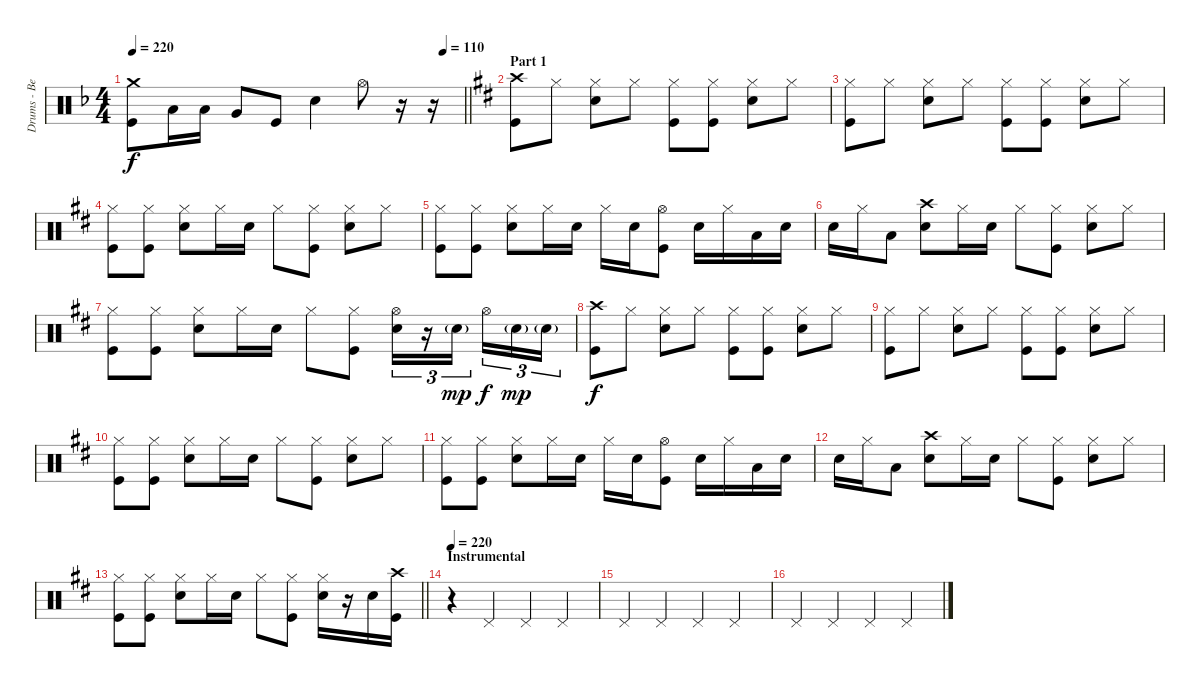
\track ("Drums - Ben Johnston" "Drums - Be") {instrument percussion}
\staff {score}
\articulation defaults
\ts (4 4)
\tempo 220
\tempo (110 0.9375)
\clef neutral
\barLineRight lightlight
\ks dminor
("Crash medium (hit)" "Kick (hit)").8{dy f} "Low Tom (hit)".16 "Low Tom (hit)".16 "Very Low Tom (hit)".8 "Kick (hit)".8 "Snare (hit) 2".4 "Hi-Hat (open)".8 r.16 r.16 |
\section ("" "Part 1")
\ks d
("Crash high (hit)" "Kick (hit)").8 "Hi-Hat (closed)".8 ("Hi-Hat (closed)" "Snare (hit) 2").8 "Hi-Hat (closed)".8 ("Hi-Hat (closed)" "Kick (hit)").8 ("Hi-Hat (closed)" "Kick (hit)").8 ("Hi-Hat (closed)" "Snare (hit) 2").8 "Hi-Hat (closed)".8 |
("Hi-Hat (closed)" "Kick (hit)").8 "Hi-Hat (closed)".8 ("Hi-Hat (closed)" "Snare (hit) 2").8 "Hi-Hat (closed)".8 ("Hi-Hat (closed)" "Kick (hit)").8 ("Hi-Hat (closed)" "Kick (hit)").8 ("Hi-Hat (closed)" "Snare (hit) 2").8 "Hi-Hat (closed)".8 |
("Hi-Hat (closed)" "Kick (hit)").8 ("Hi-Hat (closed)" "Kick (hit)").8 ("Hi-Hat (closed)" "Snare (hit) 2").8 "Hi-Hat (closed)".16 "Snare (hit) 2".16 "Hi-Hat (closed)".8 ("Hi-Hat (closed)" "Kick (hit)").8 ("Hi-Hat (closed)" "Snare (hit) 2").8 "Hi-Hat (closed)".8 |
("Hi-Hat (closed)" "Kick (hit)").8 ("Hi-Hat (closed)" "Kick (hit)").8 ("Hi-Hat (closed)" "Snare (hit) 2").8 "Hi-Hat (closed)".16 "Snare (hit) 2".16 "Hi-Hat (closed)".16 "Snare (hit) 2".16 ("Hi-Hat (open)" "Kick (hit)").8 "Snare (hit) 2".16 "Hi-Hat (closed)".16 "Low Tom (hit)".16 "Snare (hit) 2".16 |
"Snare (hit) 2".16 "Hi-Hat (closed)".16 "Low Tom (hit)".8 ("Crash high (hit)" "Snare (hit) 2").8 "Hi-Hat (closed)".16 "Snare (hit) 2".16 "Hi-Hat (closed)".8 ("Hi-Hat (closed)" "Kick (hit)").8 ("Hi-Hat (closed)" "Snare (hit) 2").8 "Hi-Hat (closed)".8 |
("Hi-Hat (closed)" "Kick (hit)").8 ("Hi-Hat (closed)" "Kick (hit)").8 ("Hi-Hat (closed)" "Snare (hit) 2").8 "Hi-Hat (closed)".16 "Snare (hit) 2".16 "Hi-Hat (closed)".8 ("Hi-Hat (closed)" "Kick (hit)").8 ("Hi-Hat (open)" "Snare (hit) 2").16{tu (3 2)} r.16{tu (3 2)} "Snare (hit) 2"{g}.16{tu (3 2) dy mp beam splitsecondary} "Hi-Hat (open)".16{tu (3 2) dy f} "Snare (hit) 2"{g}.16{tu (3 2) dy mp} "Snare (hit) 2"{g}.16{tu (3 2)} |
("Crash high (hit)" "Kick (hit)").8{dy f} "Hi-Hat (closed)".8 ("Hi-Hat (closed)" "Snare (hit) 2").8 "Hi-Hat (closed)".8 ("Hi-Hat (closed)" "Kick (hit)").8 ("Hi-Hat (closed)" "Kick (hit)").8 ("Hi-Hat (closed)" "Snare (hit) 2").8 "Hi-Hat (closed)".8 |
("Hi-Hat (closed)" "Kick (hit)").8 "Hi-Hat (closed)".8 ("Hi-Hat (closed)" "Snare (hit) 2").8 "Hi-Hat (closed)".8 ("Hi-Hat (closed)" "Kick (hit)").8 ("Hi-Hat (closed)" "Kick (hit)").8 ("Hi-Hat (closed)" "Snare (hit) 2").8 "Hi-Hat (closed)".8 |
("Hi-Hat (closed)" "Kick (hit)").8 ("Hi-Hat (closed)" "Kick (hit)").8 ("Hi-Hat (closed)" "Snare (hit) 2").8 "Hi-Hat (closed)".16 "Snare (hit) 2".16 "Hi-Hat (closed)".8 ("Hi-Hat (closed)" "Kick (hit)").8 ("Hi-Hat (closed)" "Snare (hit) 2").8 "Hi-Hat (closed)".8 |
("Hi-Hat (closed)" "Kick (hit)").8 ("Hi-Hat (closed)" "Kick (hit)").8 ("Hi-Hat (closed)" "Snare (hit) 2").8 "Hi-Hat (closed)".16 "Snare (hit) 2".16 "Hi-Hat (closed)".16 "Snare (hit) 2".16 ("Hi-Hat (open)" "Kick (hit)").8 "Snare (hit) 2".16 "Hi-Hat (closed)".16 "Low Tom (hit)".16 "Snare (hit) 2".16 |
"Snare (hit) 2".16 "Hi-Hat (closed)".16 "Low Tom (hit)".8 ("Crash high (hit)" "Snare (hit) 2").8 "Hi-Hat (closed)".16 "Snare (hit) 2".16 "Hi-Hat (closed)".8 ("Hi-Hat (closed)" "Kick (hit)").8 ("Hi-Hat (closed)" "Snare (hit) 2").8 "Hi-Hat (closed)".8 |
\barLineRight lightlight
("Hi-Hat (closed)" "Kick (hit)").8 ("Hi-Hat (closed)" "Kick (hit)").8 ("Hi-Hat (closed)" "Snare (hit) 2").8 "Hi-Hat (closed)".16 "Snare (hit) 2".16 "Hi-Hat (closed)".8 ("Hi-Hat (closed)" "Kick (hit)").8 ("Hi-Hat (closed)" "Snare (hit) 2").16 r.16 "Snare (hit) 2".16 ("Crash high (hit)" "Kick (hit)").16 |
\section ("" "Instrumental")
\tempo 220
r.4 "Pedal Hi-Hat (hit)".4 "Pedal Hi-Hat (hit)".4 "Pedal Hi-Hat (hit)".4 |
"Pedal Hi-Hat (hit)".4 "Pedal Hi-Hat (hit)".4 "Pedal Hi-Hat (hit)".4 "Pedal Hi-Hat (hit)".4 |
"Pedal Hi-Hat (hit)".4 "Pedal Hi-Hat (hit)".4 "Pedal Hi-Hat (hit)".4 "Pedal Hi-Hat (hit)".4
